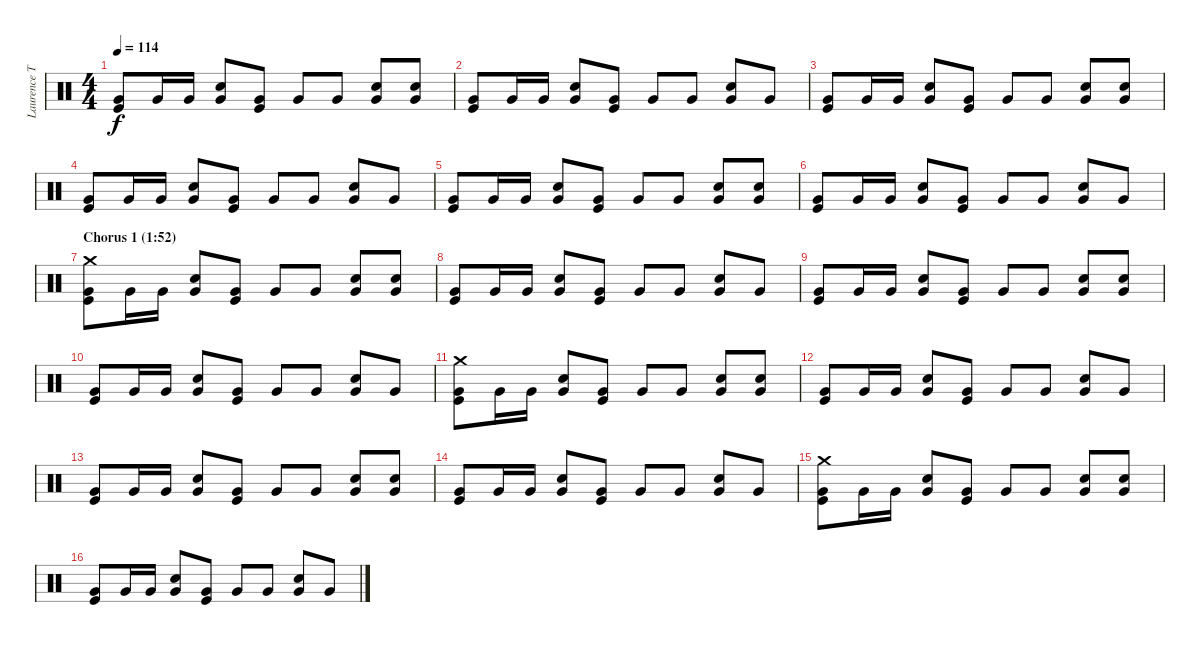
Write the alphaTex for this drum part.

\track ("Laurence Tolhurst (drums)" "Laurence T") {instrument percussion}
\staff {score}
\articulation defaults
\ts (4 4)
\tempo 114
\clef neutral
\ks c
("Very Low Tom (hit)" "Kick (hit)").8{dy f} "Very Low Tom (hit)".16 "Very Low Tom (hit)".16 ("Very Low Tom (hit)" "Snare (hit) 2").8 ("Very Low Tom (hit)" "Kick (hit)").8 "Very Low Tom (hit)".8 "Very Low Tom (hit)".8 ("Very Low Tom (hit)" "Snare (hit) 2").8 ("Very Low Tom (hit)" "Snare (hit) 2").8 |
("Very Low Tom (hit)" "Kick (hit)").8 "Very Low Tom (hit)".16 "Very Low Tom (hit)".16 ("Very Low Tom (hit)" "Snare (hit) 2").8 ("Very Low Tom (hit)" "Kick (hit)").8 "Very Low Tom (hit)".8 "Very Low Tom (hit)".8 ("Very Low Tom (hit)" "Snare (hit) 2").8 "Very Low Tom (hit)".8 |
("Very Low Tom (hit)" "Kick (hit)").8 "Very Low Tom (hit)".16 "Very Low Tom (hit)".16 ("Very Low Tom (hit)" "Snare (hit) 2").8 ("Very Low Tom (hit)" "Kick (hit)").8 "Very Low Tom (hit)".8 "Very Low Tom (hit)".8 ("Very Low Tom (hit)" "Snare (hit) 2").8 ("Very Low Tom (hit)" "Snare (hit) 2").8 |
("Very Low Tom (hit)" "Kick (hit)").8 "Very Low Tom (hit)".16 "Very Low Tom (hit)".16 ("Very Low Tom (hit)" "Snare (hit) 2").8 ("Very Low Tom (hit)" "Kick (hit)").8 "Very Low Tom (hit)".8 "Very Low Tom (hit)".8 ("Very Low Tom (hit)" "Snare (hit) 2").8 "Very Low Tom (hit)".8 |
("Very Low Tom (hit)" "Kick (hit)").8 "Very Low Tom (hit)".16 "Very Low Tom (hit)".16 ("Very Low Tom (hit)" "Snare (hit) 2").8 ("Very Low Tom (hit)" "Kick (hit)").8 "Very Low Tom (hit)".8 "Very Low Tom (hit)".8 ("Very Low Tom (hit)" "Snare (hit) 2").8 ("Very Low Tom (hit)" "Snare (hit) 2").8 |
("Very Low Tom (hit)" "Kick (hit)").8 "Very Low Tom (hit)".16 "Very Low Tom (hit)".16 ("Very Low Tom (hit)" "Snare (hit) 2").8 ("Very Low Tom (hit)" "Kick (hit)").8 "Very Low Tom (hit)".8 "Very Low Tom (hit)".8 ("Very Low Tom (hit)" "Snare (hit) 2").8 "Very Low Tom (hit)".8 |
\section ("" "Chorus 1 (1:52)")
("Crash medium (hit)" "Very Low Tom (hit)" "Kick (hit)").8 "Very Low Tom (hit)".16 "Very Low Tom (hit)".16 ("Very Low Tom (hit)" "Snare (hit) 2").8 ("Very Low Tom (hit)" "Kick (hit)").8 "Very Low Tom (hit)".8 "Very Low Tom (hit)".8 ("Very Low Tom (hit)" "Snare (hit) 2").8 ("Very Low Tom (hit)" "Snare (hit) 2").8 |
("Very Low Tom (hit)" "Kick (hit)").8 "Very Low Tom (hit)".16 "Very Low Tom (hit)".16 ("Very Low Tom (hit)" "Snare (hit) 2").8 ("Very Low Tom (hit)" "Kick (hit)").8 "Very Low Tom (hit)".8 "Very Low Tom (hit)".8 ("Very Low Tom (hit)" "Snare (hit) 2").8 "Very Low Tom (hit)".8 |
("Very Low Tom (hit)" "Kick (hit)").8 "Very Low Tom (hit)".16 "Very Low Tom (hit)".16 ("Very Low Tom (hit)" "Snare (hit) 2").8 ("Very Low Tom (hit)" "Kick (hit)").8 "Very Low Tom (hit)".8 "Very Low Tom (hit)".8 ("Very Low Tom (hit)" "Snare (hit) 2").8 ("Very Low Tom (hit)" "Snare (hit) 2").8 |
("Very Low Tom (hit)" "Kick (hit)").8 "Very Low Tom (hit)".16 "Very Low Tom (hit)".16 ("Very Low Tom (hit)" "Snare (hit) 2").8 ("Very Low Tom (hit)" "Kick (hit)").8 "Very Low Tom (hit)".8 "Very Low Tom (hit)".8 ("Very Low Tom (hit)" "Snare (hit) 2").8 "Very Low Tom (hit)".8 |
("Crash medium (hit)" "Very Low Tom (hit)" "Kick (hit)").8 "Very Low Tom (hit)".16 "Very Low Tom (hit)".16 ("Very Low Tom (hit)" "Snare (hit) 2").8 ("Very Low Tom (hit)" "Kick (hit)").8 "Very Low Tom (hit)".8 "Very Low Tom (hit)".8 ("Very Low Tom (hit)" "Snare (hit) 2").8 ("Very Low Tom (hit)" "Snare (hit) 2").8 |
("Very Low Tom (hit)" "Kick (hit)").8 "Very Low Tom (hit)".16 "Very Low Tom (hit)".16 ("Very Low Tom (hit)" "Snare (hit) 2").8 ("Very Low Tom (hit)" "Kick (hit)").8 "Very Low Tom (hit)".8 "Very Low Tom (hit)".8 ("Very Low Tom (hit)" "Snare (hit) 2").8 "Very Low Tom (hit)".8 |
("Very Low Tom (hit)" "Kick (hit)").8 "Very Low Tom (hit)".16 "Very Low Tom (hit)".16 ("Very Low Tom (hit)" "Snare (hit) 2").8 ("Very Low Tom (hit)" "Kick (hit)").8 "Very Low Tom (hit)".8 "Very Low Tom (hit)".8 ("Very Low Tom (hit)" "Snare (hit) 2").8 ("Very Low Tom (hit)" "Snare (hit) 2").8 |
("Very Low Tom (hit)" "Kick (hit)").8 "Very Low Tom (hit)".16 "Very Low Tom (hit)".16 ("Very Low Tom (hit)" "Snare (hit) 2").8 ("Very Low Tom (hit)" "Kick (hit)").8 "Very Low Tom (hit)".8 "Very Low Tom (hit)".8 ("Very Low Tom (hit)" "Snare (hit) 2").8 "Very Low Tom (hit)".8 |
("Crash medium (hit)" "Very Low Tom (hit)" "Kick (hit)").8 "Very Low Tom (hit)".16 "Very Low Tom (hit)".16 ("Very Low Tom (hit)" "Snare (hit) 2").8 ("Very Low Tom (hit)" "Kick (hit)").8 "Very Low Tom (hit)".8 "Very Low Tom (hit)".8 ("Very Low Tom (hit)" "Snare (hit) 2").8 ("Very Low Tom (hit)" "Snare (hit) 2").8 |
("Very Low Tom (hit)" "Kick (hit)").8 "Very Low Tom (hit)".16 "Very Low Tom (hit)".16 ("Very Low Tom (hit)" "Snare (hit) 2").8 ("Very Low Tom (hit)" "Kick (hit)").8 "Very Low Tom (hit)".8 "Very Low Tom (hit)".8 ("Very Low Tom (hit)" "Snare (hit) 2").8 "Very Low Tom (hit)".8
